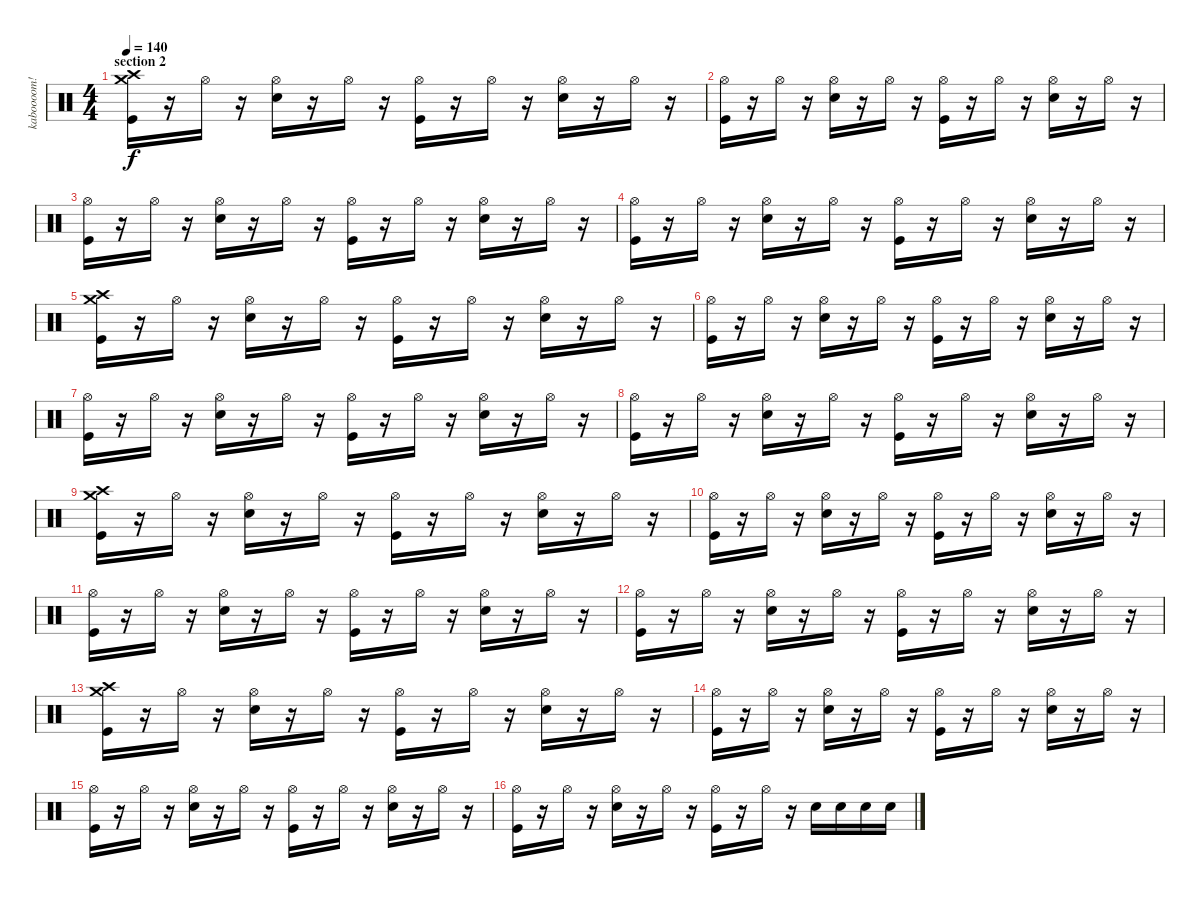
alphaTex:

\track ("kaboooom!" "kaboooom!") {instrument percussion}
\staff {score}
\articulation defaults
\ts (4 4)
\section ("" "section 2")
\tempo 140
\clef neutral
\ks c
("Crash high (hit)" "Crash medium (hit)" "Kick (hit)").16{dy f} r.16 "Hi-Hat (open)".16 r.16 ("Hi-Hat (open)" "Electric Snare (hit)").16 r.16 "Hi-Hat (open)".16 r.16 ("Hi-Hat (open)" "Kick (hit)").16 r.16 "Hi-Hat (open)".16 r.16 ("Hi-Hat (open)" "Electric Snare (hit)").16 r.16 "Hi-Hat (open)".16 r.16 |
("Hi-Hat (open)" "Kick (hit)").16 r.16 "Hi-Hat (open)".16 r.16 ("Hi-Hat (open)" "Electric Snare (hit)").16 r.16 "Hi-Hat (open)".16 r.16 ("Hi-Hat (open)" "Kick (hit)").16 r.16 "Hi-Hat (open)".16 r.16 ("Hi-Hat (open)" "Electric Snare (hit)").16 r.16 "Hi-Hat (open)".16 r.16 |
("Hi-Hat (open)" "Kick (hit)").16 r.16 "Hi-Hat (open)".16 r.16 ("Hi-Hat (open)" "Electric Snare (hit)").16 r.16 "Hi-Hat (open)".16 r.16 ("Hi-Hat (open)" "Kick (hit)").16 r.16 "Hi-Hat (open)".16 r.16 ("Hi-Hat (open)" "Electric Snare (hit)").16 r.16 "Hi-Hat (open)".16 r.16 |
("Hi-Hat (open)" "Kick (hit)").16 r.16 "Hi-Hat (open)".16 r.16 ("Hi-Hat (open)" "Electric Snare (hit)").16 r.16 "Hi-Hat (open)".16 r.16 ("Hi-Hat (open)" "Kick (hit)").16 r.16 "Hi-Hat (open)".16 r.16 ("Hi-Hat (open)" "Electric Snare (hit)").16 r.16 "Hi-Hat (open)".16 r.16 |
("Crash high (hit)" "Crash medium (hit)" "Kick (hit)").16 r.16 "Hi-Hat (open)".16 r.16 ("Hi-Hat (open)" "Electric Snare (hit)").16 r.16 "Hi-Hat (open)".16 r.16 ("Hi-Hat (open)" "Kick (hit)").16 r.16 "Hi-Hat (open)".16 r.16 ("Hi-Hat (open)" "Electric Snare (hit)").16 r.16 "Hi-Hat (open)".16 r.16 |
("Hi-Hat (open)" "Kick (hit)").16 r.16 "Hi-Hat (open)".16 r.16 ("Hi-Hat (open)" "Electric Snare (hit)").16 r.16 "Hi-Hat (open)".16 r.16 ("Hi-Hat (open)" "Kick (hit)").16 r.16 "Hi-Hat (open)".16 r.16 ("Hi-Hat (open)" "Electric Snare (hit)").16 r.16 "Hi-Hat (open)".16 r.16 |
("Hi-Hat (open)" "Kick (hit)").16 r.16 "Hi-Hat (open)".16 r.16 ("Hi-Hat (open)" "Electric Snare (hit)").16 r.16 "Hi-Hat (open)".16 r.16 ("Hi-Hat (open)" "Kick (hit)").16 r.16 "Hi-Hat (open)".16 r.16 ("Hi-Hat (open)" "Electric Snare (hit)").16 r.16 "Hi-Hat (open)".16 r.16 |
("Hi-Hat (open)" "Kick (hit)").16 r.16 "Hi-Hat (open)".16 r.16 ("Hi-Hat (open)" "Electric Snare (hit)").16 r.16 "Hi-Hat (open)".16 r.16 ("Hi-Hat (open)" "Kick (hit)").16 r.16 "Hi-Hat (open)".16 r.16 ("Hi-Hat (open)" "Electric Snare (hit)").16 r.16 "Hi-Hat (open)".16 r.16 |
("Crash high (hit)" "Crash medium (hit)" "Kick (hit)").16 r.16 "Hi-Hat (open)".16 r.16 ("Hi-Hat (open)" "Electric Snare (hit)").16 r.16 "Hi-Hat (open)".16 r.16 ("Hi-Hat (open)" "Kick (hit)").16 r.16 "Hi-Hat (open)".16 r.16 ("Hi-Hat (open)" "Electric Snare (hit)").16 r.16 "Hi-Hat (open)".16 r.16 |
("Hi-Hat (open)" "Kick (hit)").16 r.16 "Hi-Hat (open)".16 r.16 ("Hi-Hat (open)" "Electric Snare (hit)").16 r.16 "Hi-Hat (open)".16 r.16 ("Hi-Hat (open)" "Kick (hit)").16 r.16 "Hi-Hat (open)".16 r.16 ("Hi-Hat (open)" "Electric Snare (hit)").16 r.16 "Hi-Hat (open)".16 r.16 |
("Hi-Hat (open)" "Kick (hit)").16 r.16 "Hi-Hat (open)".16 r.16 ("Hi-Hat (open)" "Electric Snare (hit)").16 r.16 "Hi-Hat (open)".16 r.16 ("Hi-Hat (open)" "Kick (hit)").16 r.16 "Hi-Hat (open)".16 r.16 ("Hi-Hat (open)" "Electric Snare (hit)").16 r.16 "Hi-Hat (open)".16 r.16 |
("Hi-Hat (open)" "Kick (hit)").16 r.16 "Hi-Hat (open)".16 r.16 ("Hi-Hat (open)" "Electric Snare (hit)").16 r.16 "Hi-Hat (open)".16 r.16 ("Hi-Hat (open)" "Kick (hit)").16 r.16 "Hi-Hat (open)".16 r.16 ("Hi-Hat (open)" "Electric Snare (hit)").16 r.16 "Hi-Hat (open)".16 r.16 |
("Crash high (hit)" "Crash medium (hit)" "Kick (hit)").16 r.16 "Hi-Hat (open)".16 r.16 ("Hi-Hat (open)" "Electric Snare (hit)").16 r.16 "Hi-Hat (open)".16 r.16 ("Hi-Hat (open)" "Kick (hit)").16 r.16 "Hi-Hat (open)".16 r.16 ("Hi-Hat (open)" "Electric Snare (hit)").16 r.16 "Hi-Hat (open)".16 r.16 |
("Hi-Hat (open)" "Kick (hit)").16 r.16 "Hi-Hat (open)".16 r.16 ("Hi-Hat (open)" "Electric Snare (hit)").16 r.16 "Hi-Hat (open)".16 r.16 ("Hi-Hat (open)" "Kick (hit)").16 r.16 "Hi-Hat (open)".16 r.16 ("Hi-Hat (open)" "Electric Snare (hit)").16 r.16 "Hi-Hat (open)".16 r.16 |
("Hi-Hat (open)" "Kick (hit)").16 r.16 "Hi-Hat (open)".16 r.16 ("Hi-Hat (open)" "Electric Snare (hit)").16 r.16 "Hi-Hat (open)".16 r.16 ("Hi-Hat (open)" "Kick (hit)").16 r.16 "Hi-Hat (open)".16 r.16 ("Hi-Hat (open)" "Electric Snare (hit)").16 r.16 "Hi-Hat (open)".16 r.16 |
("Hi-Hat (open)" "Kick (hit)").16 r.16 "Hi-Hat (open)".16 r.16 ("Hi-Hat (open)" "Electric Snare (hit)").16 r.16 "Hi-Hat (open)".16 r.16 ("Hi-Hat (open)" "Kick (hit)").16 r.16 "Hi-Hat (open)".16 r.16 "Electric Snare (hit)".16 "Electric Snare (hit)".16 "Electric Snare (hit)".16 "Electric Snare (hit)".16
